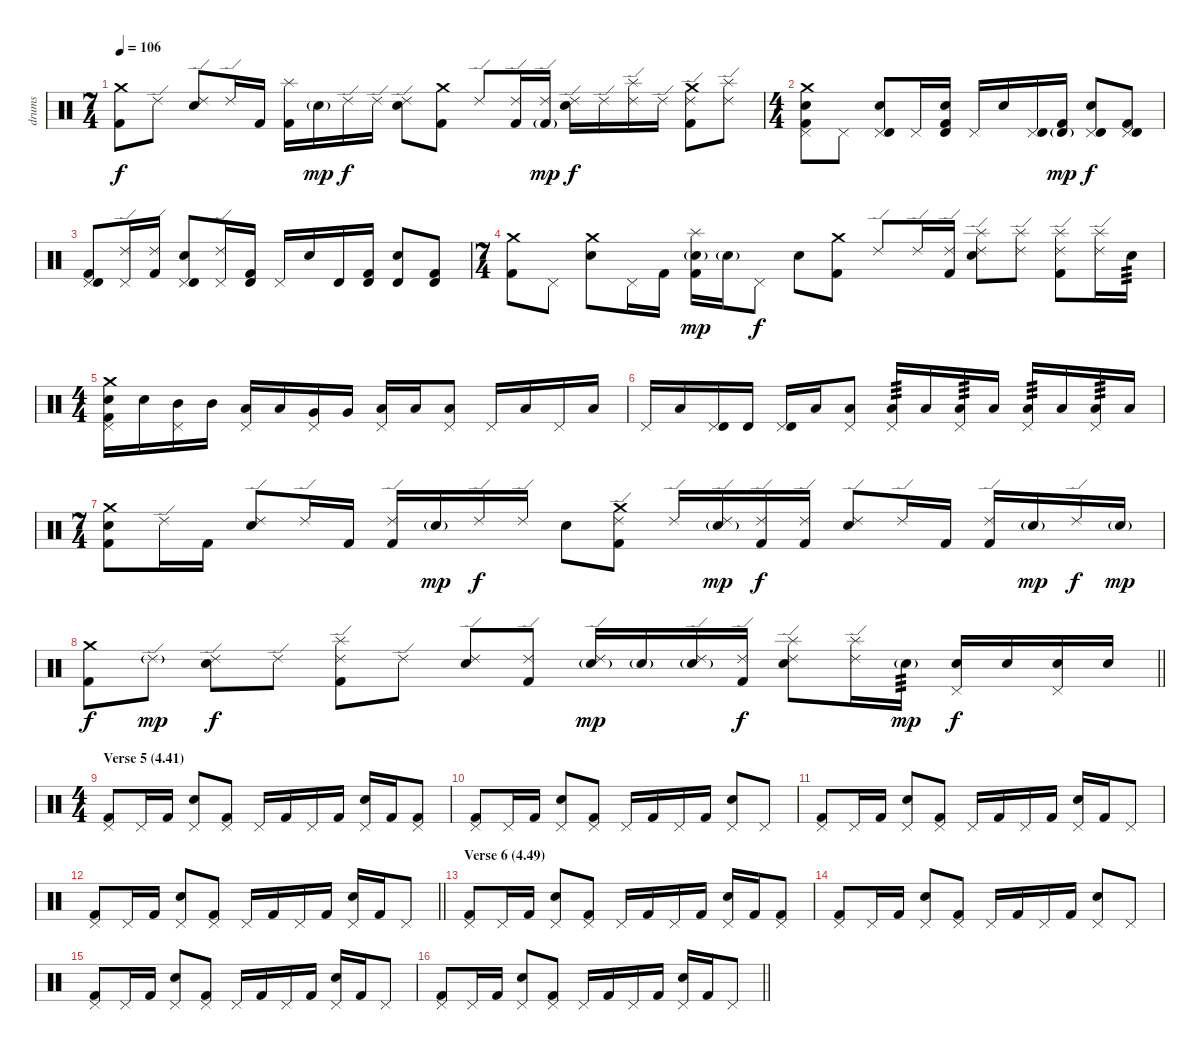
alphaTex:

\track ("drums" "drums") {instrument percussion}
\staff {score}
\articulation defaults
\ts (7 4)
\tempo 106
\clef neutral
\ks c
("Crash medium (hit)" "Kick (hit) 2").8{dy f} "Ride (edge) 2".8 ("Ride (edge) 2" "Electric Snare (hit)").8 "Ride (edge) 2".16 "Kick (hit) 2".16 ("Splash (hit)" "Kick (hit) 2").16 "Electric Snare (hit)"{g}.16{dy mp} "Ride (edge) 2".16{dy f} "Ride (edge) 2".16 ("Ride (edge) 2" "Electric Snare (hit)").8 ("Crash medium (hit)" "Kick (hit) 2").8 "Ride (edge) 2".8 ("Ride (edge) 2" "Kick (hit) 2").16 ("Ride (edge) 2" "Kick (hit) 2"{g}).16{dy mp} ("Ride (edge) 2" "Electric Snare (hit)").16{dy f} "Ride (edge) 2".16 ("Ride (edge) 2" "Splash (hit)").16 "Ride (edge) 2".16 ("Ride (edge) 2" "Crash medium (hit)" "Kick (hit) 2").8 ("Ride (edge) 2" "Splash (hit)").8 |
\ts (4 4)
("Pedal Hi-Hat (hit)" "Crash medium (hit)" "Electric Snare (hit)" "Kick (hit) 2").8 "Pedal Hi-Hat (hit)".8 ("Pedal Hi-Hat (hit)" "Timbale high (hit)" "Electric Snare (hit)").8 "Pedal Hi-Hat (hit)".16 ("Timbale high (hit)" "Electric Snare (hit)" "Kick (hit) 2").16 "Pedal Hi-Hat (hit)".16 "Electric Snare (hit)".16 ("Pedal Hi-Hat (hit)" "Timbale high (hit)").16 ("Timbale high (hit)"{g} "Kick (hit) 2").16{dy mp} ("Pedal Hi-Hat (hit)" "Timbale high (hit)" "Electric Snare (hit)").8{dy f} ("Pedal Hi-Hat (hit)" "Timbale high (hit)" "Kick (hit) 2").8 |
("Pedal Hi-Hat (hit)" "Timbale high (hit)" "Kick (hit) 2").8 ("Ride (edge) 2" "Pedal Hi-Hat (hit)").16 ("Ride (edge) 2" "Kick (hit) 2").16 ("Pedal Hi-Hat (hit)" "Timbale high (hit)" "Electric Snare (hit)").8 ("Ride (edge) 2" "Pedal Hi-Hat (hit)").16 ("Timbale high (hit)" "Kick (hit) 2").16 "Pedal Hi-Hat (hit)".16 "Electric Snare (hit)".16 "Timbale high (hit)".16 ("Timbale high (hit)" "Kick (hit) 2").16 ("Timbale high (hit)" "Electric Snare (hit)").8 ("Timbale high (hit)" "Kick (hit) 2").8 |
\ts (7 4)
("Crash medium (hit)" "Kick (hit) 2").8 "Pedal Hi-Hat (hit)".8 ("Crash medium (hit)" "Electric Snare (hit)").8 "Pedal Hi-Hat (hit)".16 "Kick (hit) 2".16 ("Splash (hit)" "Electric Snare (hit)"{g} "Kick (hit) 2").16{dy mp} "Electric Snare (hit)"{g}.16 "Pedal Hi-Hat (hit)".8{dy f} "Electric Snare (hit)".8 ("Crash medium (hit)" "Kick (hit) 2").8 "Ride (edge) 2".8 "Ride (edge) 2".16 ("Ride (edge) 2" "Kick (hit) 2").16 ("Ride (edge) 2" "Splash (hit)" "Electric Snare (hit)").8 ("Ride (edge) 2" "Splash (hit)").8 ("Ride (edge) 2" "Splash (hit)" "Kick (hit) 2").8 ("Ride (edge) 2" "Splash (hit)").16 "Electric Snare (hit)".16{tp 3} |
\ts (4 4)
("Pedal Hi-Hat (hit)" "Crash medium (hit)" "Electric Snare (hit)" "Kick (hit) 2").16 "Electric Snare (hit)".16 ("Pedal Hi-Hat (hit)" "Mid Tom (hit)").16 "Mid Tom (hit)".16 ("Pedal Hi-Hat (hit)" "Low Tom (hit)").16 "Low Tom (hit)".16 ("Pedal Hi-Hat (hit)" "Very Low Tom (hit)").16 "Very Low Tom (hit)".16 ("Pedal Hi-Hat (hit)" "Low Floor Tom (hit)").16 "Low Floor Tom (hit)".16 ("Pedal Hi-Hat (hit)" "Low Floor Tom (hit)").8 "Pedal Hi-Hat (hit)".16 "Low Tom (hit)".16 "Pedal Hi-Hat (hit)".16 "Low Tom (hit)".16 |
"Pedal Hi-Hat (hit)".16 "Low Tom (hit)".16 ("Pedal Hi-Hat (hit)" "Timbale high (hit)").16 "Timbale high (hit)".16 ("Pedal Hi-Hat (hit)" "Timbale high (hit)").16 "Low Tom (hit)".16 ("Pedal Hi-Hat (hit)" "Low Tom (hit)").8 ("Pedal Hi-Hat (hit)" "Low Tom (hit)").16{tp 3} "Low Tom (hit)".16 ("Pedal Hi-Hat (hit)" "Low Tom (hit)").16{tp 3} "Low Tom (hit)".16 ("Pedal Hi-Hat (hit)" "Low Tom (hit)").16{tp 3} "Low Tom (hit)".16 ("Pedal Hi-Hat (hit)" "Low Tom (hit)").16{tp 3} "Low Tom (hit)".16 |
\ts (7 4)
("Crash medium (hit)" "Electric Snare (hit)" "Kick (hit) 2").8 "Ride (edge) 2".16 "Kick (hit) 2".16 ("Ride (edge) 2" "Electric Snare (hit)").8 "Ride (edge) 2".16 "Kick (hit) 2".16 ("Ride (edge) 2" "Kick (hit) 2").16 "Electric Snare (hit)"{g}.16{dy mp} "Ride (edge) 2".16{dy f} "Ride (edge) 2".16 "Electric Snare (hit)".8 ("Ride (edge) 2" "Crash medium (hit)" "Kick (hit) 2").8 "Ride (edge) 2".16 ("Ride (edge) 2" "Electric Snare (hit)"{g}).16{dy mp} ("Ride (edge) 2" "Kick (hit) 2").16{dy f} ("Ride (edge) 2" "Kick (hit) 2").16 ("Ride (edge) 2" "Electric Snare (hit)").8 "Ride (edge) 2".16 "Kick (hit) 2".16 ("Ride (edge) 2" "Kick (hit) 2").16 "Electric Snare (hit)"{g}.16{dy mp} "Ride (edge) 2".16{dy f} "Electric Snare (hit)"{g}.16{dy mp} |
\barLineRight lightlight
("Crash medium (hit)" "Kick (hit) 2").8{dy f} "Ride (edge) 2"{g}.8{dy mp} ("Ride (edge) 2" "Electric Snare (hit)").8{dy f} "Ride (edge) 2".8 ("Ride (edge) 2" "Splash (hit)" "Kick (hit) 2").8 "Ride (edge) 2".8 ("Ride (edge) 2" "Electric Snare (hit)").8 ("Ride (edge) 2" "Kick (hit) 2").8 ("Ride (edge) 2" "Electric Snare (hit)"{g}).16{dy mp} "Electric Snare (hit)"{g}.16 ("Ride (edge) 2" "Electric Snare (hit)"{g}).16 ("Ride (edge) 2" "Kick (hit) 2").16{dy f} ("Ride (edge) 2" "Splash (hit)" "Electric Snare (hit)").8 ("Ride (edge) 2" "Splash (hit)").16 "Electric Snare (hit)"{g}.16{tp 3 dy mp} ("Pedal Hi-Hat (hit)" "Electric Snare (hit)").16{dy f} "Electric Snare (hit)".16 ("Pedal Hi-Hat (hit)" "Electric Snare (hit)").16 "Electric Snare (hit)".16 |
\ts (4 4)
\section ("" "Verse 5 (4.41)")
("Pedal Hi-Hat (hit)" "Kick (hit) 2").8 "Pedal Hi-Hat (hit)".16 "Kick (hit) 2".16 ("Pedal Hi-Hat (hit)" "Electric Snare (hit)").8 ("Pedal Hi-Hat (hit)" "Kick (hit) 2").8 "Pedal Hi-Hat (hit)".16 "Kick (hit) 2".16 "Pedal Hi-Hat (hit)".16 "Kick (hit) 2".16 ("Pedal Hi-Hat (hit)" "Electric Snare (hit)").16 "Kick (hit) 2".16 ("Pedal Hi-Hat (hit)" "Kick (hit) 2").8 |
("Pedal Hi-Hat (hit)" "Kick (hit) 2").8 "Pedal Hi-Hat (hit)".16 "Kick (hit) 2".16 ("Pedal Hi-Hat (hit)" "Electric Snare (hit)").8 ("Pedal Hi-Hat (hit)" "Kick (hit) 2").8 "Pedal Hi-Hat (hit)".16 "Kick (hit) 2".16 "Pedal Hi-Hat (hit)".16 "Kick (hit) 2".16 ("Pedal Hi-Hat (hit)" "Electric Snare (hit)").8 "Pedal Hi-Hat (hit)".8 |
("Pedal Hi-Hat (hit)" "Kick (hit) 2").8 "Pedal Hi-Hat (hit)".16 "Kick (hit) 2".16 ("Pedal Hi-Hat (hit)" "Electric Snare (hit)").8 ("Pedal Hi-Hat (hit)" "Kick (hit) 2").8 "Pedal Hi-Hat (hit)".16 "Kick (hit) 2".16 "Pedal Hi-Hat (hit)".16 "Kick (hit) 2".16 ("Pedal Hi-Hat (hit)" "Electric Snare (hit)").16 "Kick (hit) 2".16 "Pedal Hi-Hat (hit)".8 |
\barLineRight lightlight
("Pedal Hi-Hat (hit)" "Kick (hit) 2").8 "Pedal Hi-Hat (hit)".16 "Kick (hit) 2".16 ("Pedal Hi-Hat (hit)" "Electric Snare (hit)").8 ("Pedal Hi-Hat (hit)" "Kick (hit) 2").8 "Pedal Hi-Hat (hit)".16 "Kick (hit) 2".16 "Pedal Hi-Hat (hit)".16 "Kick (hit) 2".16 ("Pedal Hi-Hat (hit)" "Electric Snare (hit)").16 "Kick (hit) 2".16 "Pedal Hi-Hat (hit)".8 |
\section ("" "Verse 6 (4.49)")
("Pedal Hi-Hat (hit)" "Kick (hit) 2").8 "Pedal Hi-Hat (hit)".16 "Kick (hit) 2".16 ("Pedal Hi-Hat (hit)" "Electric Snare (hit)").8 ("Pedal Hi-Hat (hit)" "Kick (hit) 2").8 "Pedal Hi-Hat (hit)".16 "Kick (hit) 2".16 "Pedal Hi-Hat (hit)".16 "Kick (hit) 2".16 ("Pedal Hi-Hat (hit)" "Electric Snare (hit)").16 "Kick (hit) 2".16 ("Pedal Hi-Hat (hit)" "Kick (hit) 2").8 |
("Pedal Hi-Hat (hit)" "Kick (hit) 2").8 "Pedal Hi-Hat (hit)".16 "Kick (hit) 2".16 ("Pedal Hi-Hat (hit)" "Electric Snare (hit)").8 ("Pedal Hi-Hat (hit)" "Kick (hit) 2").8 "Pedal Hi-Hat (hit)".16 "Kick (hit) 2".16 "Pedal Hi-Hat (hit)".16 "Kick (hit) 2".16 ("Pedal Hi-Hat (hit)" "Electric Snare (hit)").8 "Pedal Hi-Hat (hit)".8 |
("Pedal Hi-Hat (hit)" "Kick (hit) 2").8 "Pedal Hi-Hat (hit)".16 "Kick (hit) 2".16 ("Pedal Hi-Hat (hit)" "Electric Snare (hit)").8 ("Pedal Hi-Hat (hit)" "Kick (hit) 2").8 "Pedal Hi-Hat (hit)".16 "Kick (hit) 2".16 "Pedal Hi-Hat (hit)".16 "Kick (hit) 2".16 ("Pedal Hi-Hat (hit)" "Electric Snare (hit)").16 "Kick (hit) 2".16 "Pedal Hi-Hat (hit)".8 |
\barLineRight lightlight
("Pedal Hi-Hat (hit)" "Kick (hit) 2").8 "Pedal Hi-Hat (hit)".16 "Kick (hit) 2".16 ("Pedal Hi-Hat (hit)" "Electric Snare (hit)").8 ("Pedal Hi-Hat (hit)" "Kick (hit) 2").8 "Pedal Hi-Hat (hit)".16 "Kick (hit) 2".16 "Pedal Hi-Hat (hit)".16 "Kick (hit) 2".16 ("Pedal Hi-Hat (hit)" "Electric Snare (hit)").16 "Kick (hit) 2".16 "Pedal Hi-Hat (hit)".8
